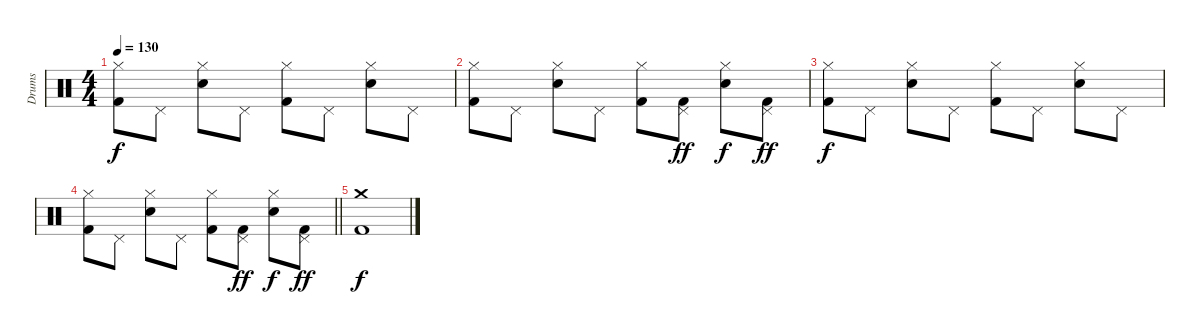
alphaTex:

\track ("Drums" "Drums") {instrument percussion}
\staff {score}
\articulation defaults
\ts (4 4)
\tempo 130
\clef neutral
\ks c
("Kick (hit) 2" "Hi-Hat (closed)").8{dy f} "Pedal Hi-Hat (hit)".8 ("Electric Snare (hit)" "Hi-Hat (closed)").8 "Pedal Hi-Hat (hit)".8 ("Kick (hit) 2" "Hi-Hat (closed)").8 "Pedal Hi-Hat (hit)".8 ("Electric Snare (hit)" "Hi-Hat (closed)").8 "Pedal Hi-Hat (hit)".8 |
("Kick (hit) 2" "Hi-Hat (closed)").8 "Pedal Hi-Hat (hit)".8 ("Electric Snare (hit)" "Hi-Hat (closed)").8 "Pedal Hi-Hat (hit)".8 ("Kick (hit) 2" "Hi-Hat (closed)").8 ("Kick (hit) 2" "Pedal Hi-Hat (hit)").8{dy ff} ("Electric Snare (hit)" "Hi-Hat (closed)").8{dy f} ("Kick (hit) 2" "Pedal Hi-Hat (hit)").8{dy ff} |
("Kick (hit) 2" "Hi-Hat (closed)").8{dy f} "Pedal Hi-Hat (hit)".8 ("Electric Snare (hit)" "Hi-Hat (closed)").8 "Pedal Hi-Hat (hit)".8 ("Kick (hit) 2" "Hi-Hat (closed)").8 "Pedal Hi-Hat (hit)".8 ("Electric Snare (hit)" "Hi-Hat (closed)").8 "Pedal Hi-Hat (hit)".8 |
\barLineRight lightlight
("Kick (hit) 2" "Hi-Hat (closed)").8 "Pedal Hi-Hat (hit)".8 ("Electric Snare (hit)" "Hi-Hat (closed)").8 "Pedal Hi-Hat (hit)".8 ("Kick (hit) 2" "Hi-Hat (closed)").8 ("Kick (hit) 2" "Pedal Hi-Hat (hit)").8{dy ff} ("Electric Snare (hit)" "Hi-Hat (closed)").8{dy f} ("Kick (hit) 2" "Pedal Hi-Hat (hit)").8{dy ff} |
("Kick (hit) 2" "Crash medium (hit)").1{dy f}
